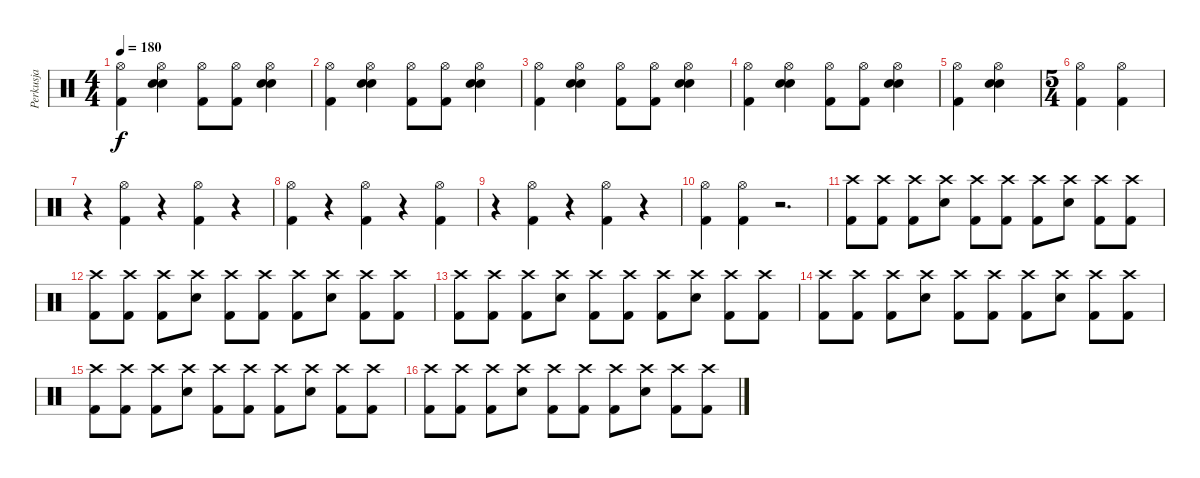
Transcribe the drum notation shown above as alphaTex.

\track ("Perkusja" "Perkusja") {instrument percussion}
\staff {score}
\articulation defaults
\ts (4 4)
\tempo 180
\clef neutral
\ks c
("Kick (hit) 2" "Hi-Hat (open)").4{dy f} ("Hi-Hat (open)" "Snare (hit) 2" "Electric Snare (hit)").4 ("Kick (hit) 2" "Hi-Hat (open)").8 ("Kick (hit) 2" "Hi-Hat (open)").8 ("Hi-Hat (open)" "Snare (hit) 2" "Electric Snare (hit)").4 |
("Kick (hit) 2" "Hi-Hat (open)").4 ("Hi-Hat (open)" "Snare (hit) 2" "Electric Snare (hit)").4 ("Kick (hit) 2" "Hi-Hat (open)").8 ("Kick (hit) 2" "Hi-Hat (open)").8 ("Hi-Hat (open)" "Snare (hit) 2" "Electric Snare (hit)").4 |
("Kick (hit) 2" "Hi-Hat (open)").4 ("Hi-Hat (open)" "Snare (hit) 2" "Electric Snare (hit)").4 ("Kick (hit) 2" "Hi-Hat (open)").8 ("Kick (hit) 2" "Hi-Hat (open)").8 ("Hi-Hat (open)" "Snare (hit) 2" "Electric Snare (hit)").4 |
("Kick (hit) 2" "Hi-Hat (open)").4 ("Hi-Hat (open)" "Snare (hit) 2" "Electric Snare (hit)").4 ("Kick (hit) 2" "Hi-Hat (open)").8 ("Kick (hit) 2" "Hi-Hat (open)").8 ("Hi-Hat (open)" "Snare (hit) 2" "Electric Snare (hit)").4 |
("Kick (hit) 2" "Hi-Hat (open)").4 ("Hi-Hat (open)" "Snare (hit) 2" "Electric Snare (hit)").4 |
\ts (5 4)
("Kick (hit) 2" "Hi-Hat (open)").4 ("Kick (hit) 2" "Hi-Hat (open)").4 |
r.4 ("Kick (hit) 2" "Hi-Hat (open)").4 r.4 ("Kick (hit) 2" "Hi-Hat (open)").4 r.4 |
("Kick (hit) 2" "Hi-Hat (open)").4 r.4 ("Kick (hit) 2" "Hi-Hat (open)").4 r.4 ("Kick (hit) 2" "Hi-Hat (open)").4 |
r.4 ("Kick (hit) 2" "Hi-Hat (open)").4 r.4 ("Kick (hit) 2" "Hi-Hat (open)").4 r.4 |
("Kick (hit) 2" "Hi-Hat (open)").4 ("Kick (hit) 2" "Hi-Hat (open)").4 r.2{d} |
("Kick (hit) 2" "Crash high (hit)").8 ("Kick (hit) 2" "Crash high (hit)").8 ("Kick (hit) 2" "Crash high (hit)").8 ("Crash high (hit)" "Snare (hit) 2").8 ("Kick (hit) 2" "Crash high (hit)").8 ("Kick (hit) 2" "Crash high (hit)").8 ("Kick (hit) 2" "Crash high (hit)").8 ("Crash high (hit)" "Snare (hit) 2").8 ("Kick (hit) 2" "Crash high (hit)").8 ("Kick (hit) 2" "Crash high (hit)").8 |
("Kick (hit) 2" "Crash high (hit)").8 ("Kick (hit) 2" "Crash high (hit)").8 ("Kick (hit) 2" "Crash high (hit)").8 ("Crash high (hit)" "Snare (hit) 2").8 ("Kick (hit) 2" "Crash high (hit)").8 ("Kick (hit) 2" "Crash high (hit)").8 ("Kick (hit) 2" "Crash high (hit)").8 ("Crash high (hit)" "Snare (hit) 2").8 ("Kick (hit) 2" "Crash high (hit)").8 ("Kick (hit) 2" "Crash high (hit)").8 |
("Kick (hit) 2" "Crash high (hit)").8 ("Kick (hit) 2" "Crash high (hit)").8 ("Kick (hit) 2" "Crash high (hit)").8 ("Crash high (hit)" "Snare (hit) 2").8 ("Kick (hit) 2" "Crash high (hit)").8 ("Kick (hit) 2" "Crash high (hit)").8 ("Kick (hit) 2" "Crash high (hit)").8 ("Crash high (hit)" "Snare (hit) 2").8 ("Kick (hit) 2" "Crash high (hit)").8 ("Kick (hit) 2" "Crash high (hit)").8 |
("Kick (hit) 2" "Crash high (hit)").8 ("Kick (hit) 2" "Crash high (hit)").8 ("Kick (hit) 2" "Crash high (hit)").8 ("Crash high (hit)" "Snare (hit) 2").8 ("Kick (hit) 2" "Crash high (hit)").8 ("Kick (hit) 2" "Crash high (hit)").8 ("Kick (hit) 2" "Crash high (hit)").8 ("Crash high (hit)" "Snare (hit) 2").8 ("Kick (hit) 2" "Crash high (hit)").8 ("Kick (hit) 2" "Crash high (hit)").8 |
("Kick (hit) 2" "Crash high (hit)").8 ("Kick (hit) 2" "Crash high (hit)").8 ("Kick (hit) 2" "Crash high (hit)").8 ("Crash high (hit)" "Snare (hit) 2").8 ("Kick (hit) 2" "Crash high (hit)").8 ("Kick (hit) 2" "Crash high (hit)").8 ("Kick (hit) 2" "Crash high (hit)").8 ("Crash high (hit)" "Snare (hit) 2").8 ("Kick (hit) 2" "Crash high (hit)").8 ("Kick (hit) 2" "Crash high (hit)").8 |
("Kick (hit) 2" "Crash high (hit)").8 ("Kick (hit) 2" "Crash high (hit)").8 ("Kick (hit) 2" "Crash high (hit)").8 ("Crash high (hit)" "Snare (hit) 2").8 ("Kick (hit) 2" "Crash high (hit)").8 ("Kick (hit) 2" "Crash high (hit)").8 ("Kick (hit) 2" "Crash high (hit)").8 ("Crash high (hit)" "Snare (hit) 2").8 ("Kick (hit) 2" "Crash high (hit)").8 ("Kick (hit) 2" "Crash high (hit)").8
